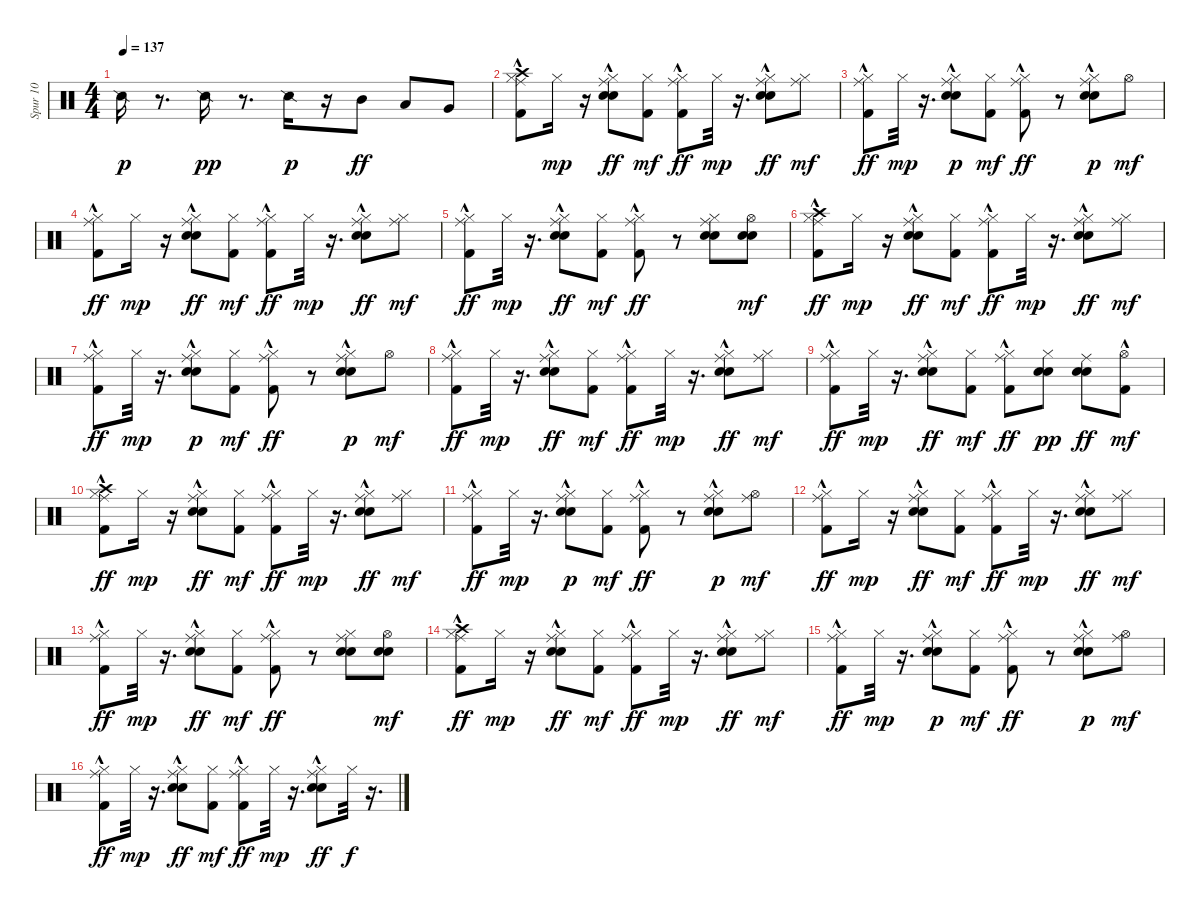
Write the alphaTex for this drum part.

\track ("Spur 10" "Spur 10") {instrument percussion}
\staff {score}
\articulation defaults
\ts (4 4)
\tempo 137
\clef neutral
\ks c "Snare (side stick) 2".16{dy p}
r.8{d} "Snare (side stick) 2".16{dy pp} r.8{d} "Snare (side stick) 2".16{dy p} r.16 "Mid Tom (hit)".8{dy ff} "Low Tom (hit)".8 "Very Low Tom (hit)".8 |
("Kick (hit) 2"{hac} "Hi-Hat (closed)" "Ride (middle)" "Crash high (hit)").8 "Hi-Hat (closed)".16{dy mp} r.16 ("Electric Snare (hit)"{hac} "Snare (hit) 2"{hac} "Hi-Hat (closed)" "Ride (middle)"{hac}).8{dy ff} ("Kick (hit) 2" "Hi-Hat (closed)").8{dy mf} ("Kick (hit) 2" "Hi-Hat (closed)" "Ride (middle)"{hac}).8{dy ff} "Hi-Hat (closed)".32{dy mp} r.16{d} ("Electric Snare (hit)"{hac} "Snare (hit) 2"{hac} "Hi-Hat (closed)" "Ride (middle)").8{dy ff} ("Hi-Hat (closed)" "Ride (middle)").8{dy mf} |
("Kick (hit) 2"{hac} "Ride (middle)" "Hi-Hat (closed)").8{dy ff} "Hi-Hat (closed)".32{dy mp} r.16{d} ("Hi-Hat (closed)" "Ride (middle)"{hac} "Electric Snare (hit)"{hac} "Snare (hit) 2"{hac}).8{dy p} ("Kick (hit) 2" "Hi-Hat (closed)").8{dy mf} ("Kick (hit) 2" "Hi-Hat (closed)" "Ride (middle)"{hac}).8{dy ff} r.8 ("Hi-Hat (closed)" "Ride (middle)" "Electric Snare (hit)"{hac} "Snare (hit) 2"{hac}).8{dy p} "Hi-Hat (open)".8{dy mf} |
("Kick (hit) 2"{hac} "Hi-Hat (closed)" "Ride (middle)").8{dy ff} "Hi-Hat (closed)".16{dy mp} r.16 ("Electric Snare (hit)"{hac} "Snare (hit) 2"{hac} "Hi-Hat (closed)" "Ride (middle)"{hac}).8{dy ff} ("Kick (hit) 2" "Hi-Hat (closed)").8{dy mf} ("Kick (hit) 2" "Hi-Hat (closed)" "Ride (middle)"{hac}).8{dy ff} "Hi-Hat (closed)".32{dy mp} r.16{d} ("Electric Snare (hit)"{hac} "Snare (hit) 2"{hac} "Hi-Hat (closed)" "Ride (middle)").8{dy ff} ("Hi-Hat (closed)" "Ride (middle)").8{dy mf} |
("Kick (hit) 2"{hac} "Ride (middle)" "Hi-Hat (closed)").8{dy ff} "Hi-Hat (closed)".32{dy mp} r.16{d} ("Electric Snare (hit)"{hac} "Snare (hit) 2"{hac} "Hi-Hat (closed)" "Ride (middle)"{hac}).8{dy ff} ("Kick (hit) 2" "Hi-Hat (closed)").8{dy mf} ("Kick (hit) 2" "Hi-Hat (closed)" "Ride (middle)"{hac}).8{dy ff} r.8 ("Electric Snare (hit)" "Snare (hit) 2" "Hi-Hat (closed)" "Ride (middle)").8 ("Electric Snare (hit)" "Snare (hit) 2" "Hi-Hat (open)").8{dy mf} |
("Kick (hit) 2"{hac} "Hi-Hat (closed)" "Crash high (hit)" "Ride (middle)").8{dy ff} "Hi-Hat (closed)".16{dy mp} r.16 ("Electric Snare (hit)"{hac} "Snare (hit) 2"{hac} "Hi-Hat (closed)" "Ride (middle)"{hac}).8{dy ff} ("Kick (hit) 2" "Hi-Hat (closed)").8{dy mf} ("Kick (hit) 2" "Hi-Hat (closed)" "Ride (middle)"{hac}).8{dy ff} "Hi-Hat (closed)".32{dy mp} r.16{d} ("Electric Snare (hit)"{hac} "Snare (hit) 2"{hac} "Hi-Hat (closed)" "Ride (middle)").8{dy ff} ("Hi-Hat (closed)" "Ride (middle)").8{dy mf} |
("Kick (hit) 2"{hac} "Ride (middle)" "Hi-Hat (closed)").8{dy ff} "Hi-Hat (closed)".32{dy mp} r.16{d} ("Hi-Hat (closed)" "Ride (middle)"{hac} "Electric Snare (hit)"{hac} "Snare (hit) 2"{hac}).8{dy p} ("Kick (hit) 2" "Hi-Hat (closed)").8{dy mf} ("Kick (hit) 2" "Hi-Hat (closed)" "Ride (middle)"{hac}).8{dy ff} r.8 ("Hi-Hat (closed)" "Ride (middle)" "Electric Snare (hit)"{hac} "Snare (hit) 2"{hac}).8{dy p} "Hi-Hat (open)".8{dy mf} |
("Kick (hit) 2"{hac} "Hi-Hat (closed)" "Ride (middle)").8{dy ff} "Hi-Hat (closed)".32{dy mp} r.16{d} ("Electric Snare (hit)"{hac} "Snare (hit) 2"{hac} "Hi-Hat (closed)" "Ride (middle)"{hac}).8{dy ff} ("Kick (hit) 2" "Hi-Hat (closed)").8{dy mf} ("Kick (hit) 2" "Hi-Hat (closed)" "Ride (middle)"{hac}).8{dy ff} "Hi-Hat (closed)".32{dy mp} r.16{d} ("Electric Snare (hit)"{hac} "Snare (hit) 2"{hac} "Hi-Hat (closed)" "Ride (middle)").8{dy ff} ("Hi-Hat (closed)" "Ride (middle)").8{dy mf} |
("Kick (hit) 2"{hac} "Ride (middle)" "Hi-Hat (closed)").8{dy ff} "Hi-Hat (closed)".32{dy mp} r.16{d} ("Electric Snare (hit)"{hac} "Snare (hit) 2"{hac} "Hi-Hat (closed)" "Ride (middle)"{hac}).8{dy ff} ("Kick (hit) 2" "Hi-Hat (closed)").8{dy mf} ("Kick (hit) 2" "Hi-Hat (closed)" "Ride (middle)"{hac}).8{dy ff} ("Electric Snare (hit)" "Snare (hit) 2" "Hi-Hat (closed)").8{dy pp} ("Electric Snare (hit)" "Snare (hit) 2" "Ride (middle)").8{dy ff} ("Kick (hit) 2"{hac} "Hi-Hat (open)").8{dy mf} |
("Kick (hit) 2"{hac} "Hi-Hat (closed)" "Ride (middle)" "Crash high (hit)").8{dy ff} "Hi-Hat (closed)".16{dy mp} r.16 ("Electric Snare (hit)"{hac} "Snare (hit) 2"{hac} "Hi-Hat (closed)" "Ride (middle)"{hac}).8{dy ff} ("Kick (hit) 2" "Hi-Hat (closed)").8{dy mf} ("Kick (hit) 2" "Hi-Hat (closed)" "Ride (middle)"{hac}).8{dy ff} "Hi-Hat (closed)".32{dy mp} r.16{d} ("Electric Snare (hit)"{hac} "Snare (hit) 2"{hac} "Hi-Hat (closed)" "Ride (middle)").8{dy ff} ("Hi-Hat (closed)" "Ride (middle)").8{dy mf} |
("Kick (hit) 2"{hac} "Ride (middle)" "Hi-Hat (closed)").8{dy ff} "Hi-Hat (closed)".32{dy mp} r.16{d} ("Hi-Hat (closed)" "Ride (middle)"{hac} "Electric Snare (hit)"{hac} "Snare (hit) 2"{hac}).8{dy p} ("Kick (hit) 2" "Hi-Hat (closed)").8{dy mf} ("Kick (hit) 2" "Hi-Hat (closed)" "Ride (middle)"{hac}).8{dy ff} r.8 ("Hi-Hat (closed)" "Ride (middle)" "Electric Snare (hit)"{hac} "Snare (hit) 2"{hac}).8{dy p} ("Hi-Hat (open)" "Ride (middle)").8{dy mf} |
("Kick (hit) 2"{hac} "Hi-Hat (closed)" "Ride (middle)").8{dy ff} "Hi-Hat (closed)".16{dy mp} r.16 ("Electric Snare (hit)"{hac} "Snare (hit) 2"{hac} "Hi-Hat (closed)" "Ride (middle)"{hac}).8{dy ff} ("Kick (hit) 2" "Hi-Hat (closed)").8{dy mf} ("Kick (hit) 2" "Hi-Hat (closed)" "Ride (middle)"{hac}).8{dy ff} "Hi-Hat (closed)".32{dy mp} r.16{d} ("Electric Snare (hit)"{hac} "Snare (hit) 2"{hac} "Hi-Hat (closed)" "Ride (middle)").8{dy ff} ("Hi-Hat (closed)" "Ride (middle)").8{dy mf} |
("Kick (hit) 2"{hac} "Ride (middle)" "Hi-Hat (closed)").8{dy ff} "Hi-Hat (closed)".32{dy mp} r.16{d} ("Electric Snare (hit)"{hac} "Snare (hit) 2"{hac} "Hi-Hat (closed)" "Ride (middle)"{hac}).8{dy ff} ("Kick (hit) 2" "Hi-Hat (closed)").8{dy mf} ("Kick (hit) 2" "Hi-Hat (closed)" "Ride (middle)"{hac}).8{dy ff} r.8 ("Electric Snare (hit)" "Snare (hit) 2" "Hi-Hat (closed)" "Ride (middle)").8 ("Electric Snare (hit)" "Snare (hit) 2" "Hi-Hat (open)").8{dy mf} |
("Kick (hit) 2"{hac} "Hi-Hat (closed)" "Crash high (hit)" "Ride (middle)").8{dy ff} "Hi-Hat (closed)".16{dy mp} r.16 ("Electric Snare (hit)"{hac} "Snare (hit) 2"{hac} "Hi-Hat (closed)" "Ride (middle)"{hac}).8{dy ff} ("Kick (hit) 2" "Hi-Hat (closed)").8{dy mf} ("Kick (hit) 2" "Hi-Hat (closed)" "Ride (middle)"{hac}).8{dy ff} "Hi-Hat (closed)".32{dy mp} r.16{d} ("Electric Snare (hit)"{hac} "Snare (hit) 2"{hac} "Hi-Hat (closed)" "Ride (middle)").8{dy ff} ("Hi-Hat (closed)" "Ride (middle)").8{dy mf} |
("Kick (hit) 2"{hac} "Ride (middle)" "Hi-Hat (closed)").8{dy ff} "Hi-Hat (closed)".32{dy mp} r.16{d} ("Hi-Hat (closed)" "Ride (middle)"{hac} "Electric Snare (hit)"{hac} "Snare (hit) 2"{hac}).8{dy p} ("Kick (hit) 2" "Hi-Hat (closed)").8{dy mf} ("Kick (hit) 2" "Hi-Hat (closed)" "Ride (middle)"{hac}).8{dy ff} r.8 ("Hi-Hat (closed)" "Ride (middle)" "Electric Snare (hit)"{hac} "Snare (hit) 2"{hac}).8{dy p} ("Hi-Hat (open)" "Ride (middle)").8{dy mf} |
("Kick (hit) 2"{hac} "Hi-Hat (closed)" "Ride (middle)").8{dy ff} "Hi-Hat (closed)".32{dy mp} r.16{d} ("Electric Snare (hit)"{hac} "Snare (hit) 2"{hac} "Hi-Hat (closed)" "Ride (middle)"{hac}).8{dy ff} ("Kick (hit) 2" "Hi-Hat (closed)").8{dy mf} ("Kick (hit) 2" "Hi-Hat (closed)" "Ride (middle)"{hac}).8{dy ff} "Hi-Hat (closed)".32{dy mp} r.16{d} ("Electric Snare (hit)"{hac} "Snare (hit) 2"{hac} "Hi-Hat (closed)" "Ride (middle)").8{dy ff} "Hi-Hat (closed)".32{dy f} r.16{d}
